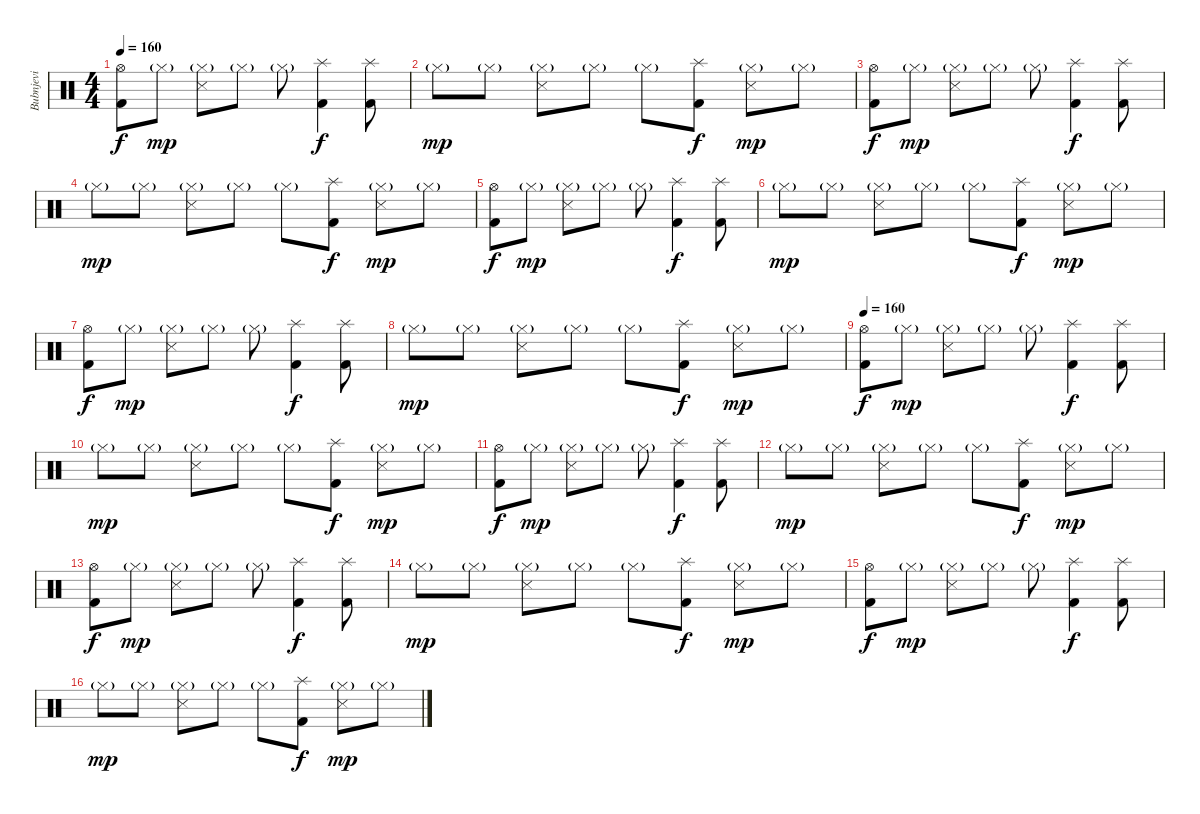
\track ("Bubnjevi" "Bubnjevi") {instrument percussion}
\staff {score}
\articulation defaults
\ts (4 4)
\tempo 160
\clef neutral
\ks c
("Hi-Hat (open)" "Kick (hit) 2").8{dy f} "Hi-Hat (closed)"{g}.8{dy mp} ("Hi-Hat (closed)"{g} "Snare (side stick) 3").8 "Hi-Hat (closed)"{g}.8 "Hi-Hat (closed)"{g}.8 ("Splash (hit)" "Kick (hit) 2").4{dy f} ("Splash (hit)" "Kick (hit) 2").8 |
"Hi-Hat (closed)"{g}.8{dy mp} "Hi-Hat (closed)"{g}.8 ("Hi-Hat (closed)"{g} "Snare (side stick) 3").8 "Hi-Hat (closed)"{g}.8 "Hi-Hat (closed)"{g}.8 ("Splash (hit)" "Kick (hit) 2").8{dy f} ("Hi-Hat (closed)"{g} "Snare (side stick) 3").8{dy mp} "Hi-Hat (closed)"{g}.8 |
("Hi-Hat (open)" "Kick (hit) 2").8{dy f} "Hi-Hat (closed)"{g}.8{dy mp} ("Hi-Hat (closed)"{g} "Snare (side stick) 3").8 "Hi-Hat (closed)"{g}.8 "Hi-Hat (closed)"{g}.8 ("Splash (hit)" "Kick (hit) 2").4{dy f} ("Splash (hit)" "Kick (hit) 2").8 |
"Hi-Hat (closed)"{g}.8{dy mp} "Hi-Hat (closed)"{g}.8 ("Hi-Hat (closed)"{g} "Snare (side stick) 3").8 "Hi-Hat (closed)"{g}.8 "Hi-Hat (closed)"{g}.8 ("Splash (hit)" "Kick (hit) 2").8{dy f} ("Hi-Hat (closed)"{g} "Snare (side stick) 3").8{dy mp} "Hi-Hat (closed)"{g}.8 |
("Hi-Hat (open)" "Kick (hit) 2").8{dy f} "Hi-Hat (closed)"{g}.8{dy mp} ("Hi-Hat (closed)"{g} "Snare (side stick) 3").8 "Hi-Hat (closed)"{g}.8 "Hi-Hat (closed)"{g}.8 ("Splash (hit)" "Kick (hit) 2").4{dy f} ("Splash (hit)" "Kick (hit) 2").8 |
"Hi-Hat (closed)"{g}.8{dy mp} "Hi-Hat (closed)"{g}.8 ("Hi-Hat (closed)"{g} "Snare (side stick) 3").8 "Hi-Hat (closed)"{g}.8 "Hi-Hat (closed)"{g}.8 ("Splash (hit)" "Kick (hit) 2").8{dy f} ("Hi-Hat (closed)"{g} "Snare (side stick) 3").8{dy mp} "Hi-Hat (closed)"{g}.8 |
("Hi-Hat (open)" "Kick (hit) 2").8{dy f} "Hi-Hat (closed)"{g}.8{dy mp} ("Hi-Hat (closed)"{g} "Snare (side stick) 3").8 "Hi-Hat (closed)"{g}.8 "Hi-Hat (closed)"{g}.8 ("Splash (hit)" "Kick (hit) 2").4{dy f} ("Splash (hit)" "Kick (hit) 2").8 |
"Hi-Hat (closed)"{g}.8{dy mp} "Hi-Hat (closed)"{g}.8 ("Hi-Hat (closed)"{g} "Snare (side stick) 3").8 "Hi-Hat (closed)"{g}.8 "Hi-Hat (closed)"{g}.8 ("Splash (hit)" "Kick (hit) 2").8{dy f} ("Hi-Hat (closed)"{g} "Snare (side stick) 3").8{dy mp} "Hi-Hat (closed)"{g}.8 |
\tempo 160
("Hi-Hat (open)" "Kick (hit) 2").8{dy f} "Hi-Hat (closed)"{g}.8{dy mp} ("Hi-Hat (closed)"{g} "Snare (side stick) 3").8 "Hi-Hat (closed)"{g}.8 "Hi-Hat (closed)"{g}.8 ("Splash (hit)" "Kick (hit) 2").4{dy f} ("Splash (hit)" "Kick (hit) 2").8 |
"Hi-Hat (closed)"{g}.8{dy mp} "Hi-Hat (closed)"{g}.8 ("Hi-Hat (closed)"{g} "Snare (side stick) 3").8 "Hi-Hat (closed)"{g}.8 "Hi-Hat (closed)"{g}.8 ("Splash (hit)" "Kick (hit) 2").8{dy f} ("Hi-Hat (closed)"{g} "Snare (side stick) 3").8{dy mp} "Hi-Hat (closed)"{g}.8 |
("Hi-Hat (open)" "Kick (hit) 2").8{dy f} "Hi-Hat (closed)"{g}.8{dy mp} ("Hi-Hat (closed)"{g} "Snare (side stick) 3").8 "Hi-Hat (closed)"{g}.8 "Hi-Hat (closed)"{g}.8 ("Splash (hit)" "Kick (hit) 2").4{dy f} ("Splash (hit)" "Kick (hit) 2").8 |
"Hi-Hat (closed)"{g}.8{dy mp} "Hi-Hat (closed)"{g}.8 ("Hi-Hat (closed)"{g} "Snare (side stick) 3").8 "Hi-Hat (closed)"{g}.8 "Hi-Hat (closed)"{g}.8 ("Splash (hit)" "Kick (hit) 2").8{dy f} ("Hi-Hat (closed)"{g} "Snare (side stick) 3").8{dy mp} "Hi-Hat (closed)"{g}.8 |
("Hi-Hat (open)" "Kick (hit) 2").8{dy f} "Hi-Hat (closed)"{g}.8{dy mp} ("Hi-Hat (closed)"{g} "Snare (side stick) 3").8 "Hi-Hat (closed)"{g}.8 "Hi-Hat (closed)"{g}.8 ("Splash (hit)" "Kick (hit) 2").4{dy f} ("Splash (hit)" "Kick (hit) 2").8 |
"Hi-Hat (closed)"{g}.8{dy mp} "Hi-Hat (closed)"{g}.8 ("Hi-Hat (closed)"{g} "Snare (side stick) 3").8 "Hi-Hat (closed)"{g}.8 "Hi-Hat (closed)"{g}.8 ("Splash (hit)" "Kick (hit) 2").8{dy f} ("Hi-Hat (closed)"{g} "Snare (side stick) 3").8{dy mp} "Hi-Hat (closed)"{g}.8 |
("Hi-Hat (open)" "Kick (hit) 2").8{dy f} "Hi-Hat (closed)"{g}.8{dy mp} ("Hi-Hat (closed)"{g} "Snare (side stick) 3").8 "Hi-Hat (closed)"{g}.8 "Hi-Hat (closed)"{g}.8 ("Splash (hit)" "Kick (hit) 2").4{dy f} ("Splash (hit)" "Kick (hit) 2").8 |
"Hi-Hat (closed)"{g}.8{dy mp} "Hi-Hat (closed)"{g}.8 ("Hi-Hat (closed)"{g} "Snare (side stick) 3").8 "Hi-Hat (closed)"{g}.8 "Hi-Hat (closed)"{g}.8 ("Splash (hit)" "Kick (hit) 2").8{dy f} ("Hi-Hat (closed)"{g} "Snare (side stick) 3").8{dy mp} "Hi-Hat (closed)"{g}.8
